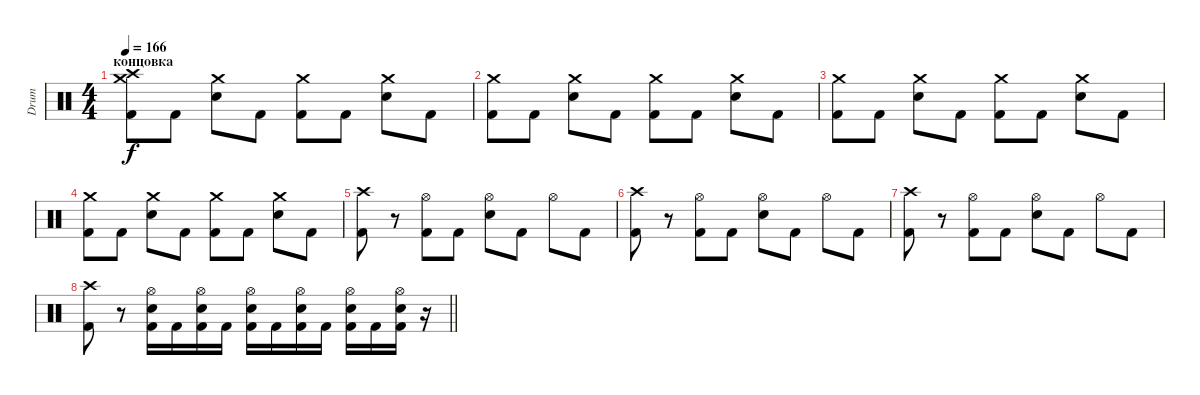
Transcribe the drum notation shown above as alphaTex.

\track ("Drum" "Drum") {instrument percussion}
\staff {score}
\articulation defaults
\ts (4 4)
\section ("" "концовка")
\tempo 166
\clef neutral
\ks c
("Crash high (hit)" "Crash medium (hit)" "Kick (hit) 2").8{dy f} "Kick (hit) 2".8 ("Crash medium (hit)" "Snare (hit) 2").8 "Kick (hit) 2".8 ("Crash medium (hit)" "Kick (hit) 2").8 "Kick (hit) 2".8 ("Crash medium (hit)" "Snare (hit) 2").8 "Kick (hit) 2".8 |
("Crash medium (hit)" "Kick (hit) 2").8 "Kick (hit) 2".8 ("Crash medium (hit)" "Snare (hit) 2").8 "Kick (hit) 2".8 ("Crash medium (hit)" "Kick (hit) 2").8 "Kick (hit) 2".8 ("Crash medium (hit)" "Snare (hit) 2").8 "Kick (hit) 2".8 |
("Crash medium (hit)" "Kick (hit) 2").8 "Kick (hit) 2".8 ("Crash medium (hit)" "Snare (hit) 2").8 "Kick (hit) 2".8 ("Crash medium (hit)" "Kick (hit) 2").8 "Kick (hit) 2".8 ("Crash medium (hit)" "Snare (hit) 2").8 "Kick (hit) 2".8 |
("Crash medium (hit)" "Kick (hit) 2").8 "Kick (hit) 2".8 ("Crash medium (hit)" "Snare (hit) 2").8 "Kick (hit) 2".8 ("Crash medium (hit)" "Kick (hit) 2").8 "Kick (hit) 2".8 ("Crash medium (hit)" "Snare (hit) 2").8 "Kick (hit) 2".8 |
("Crash high (hit)" "Kick (hit) 2").8 r.8 ("Hi-Hat (open)" "Kick (hit) 2").8 "Kick (hit) 2".8 ("Hi-Hat (open)" "Snare (hit) 2").8 "Kick (hit) 2".8 "Hi-Hat (open)".8 "Kick (hit) 2".8 |
("Crash high (hit)" "Kick (hit) 2").8 r.8 ("Hi-Hat (open)" "Kick (hit) 2").8 "Kick (hit) 2".8 ("Hi-Hat (open)" "Snare (hit) 2").8 "Kick (hit) 2".8 "Hi-Hat (open)".8 "Kick (hit) 2".8 |
("Crash high (hit)" "Kick (hit) 2").8 r.8 ("Hi-Hat (open)" "Kick (hit) 2").8 "Kick (hit) 2".8 ("Hi-Hat (open)" "Snare (hit) 2").8 "Kick (hit) 2".8 "Hi-Hat (open)".8 "Kick (hit) 2".8 |
\barLineRight lightlight
("Crash high (hit)" "Kick (hit) 2").8 r.8 ("Hi-Hat (open)" "Kick (hit) 2" "Snare (hit) 2").16 "Kick (hit) 2".16 ("Hi-Hat (open)" "Kick (hit) 2" "Snare (hit) 2").16 "Kick (hit) 2".16 ("Hi-Hat (open)" "Kick (hit) 2" "Snare (hit) 2").16 "Kick (hit) 2".16 ("Hi-Hat (open)" "Kick (hit) 2" "Snare (hit) 2").16 "Kick (hit) 2".16 ("Hi-Hat (open)" "Kick (hit) 2" "Snare (hit) 2").16 "Kick (hit) 2".16 ("Hi-Hat (open)" "Kick (hit) 2" "Snare (hit) 2").16 r.16
